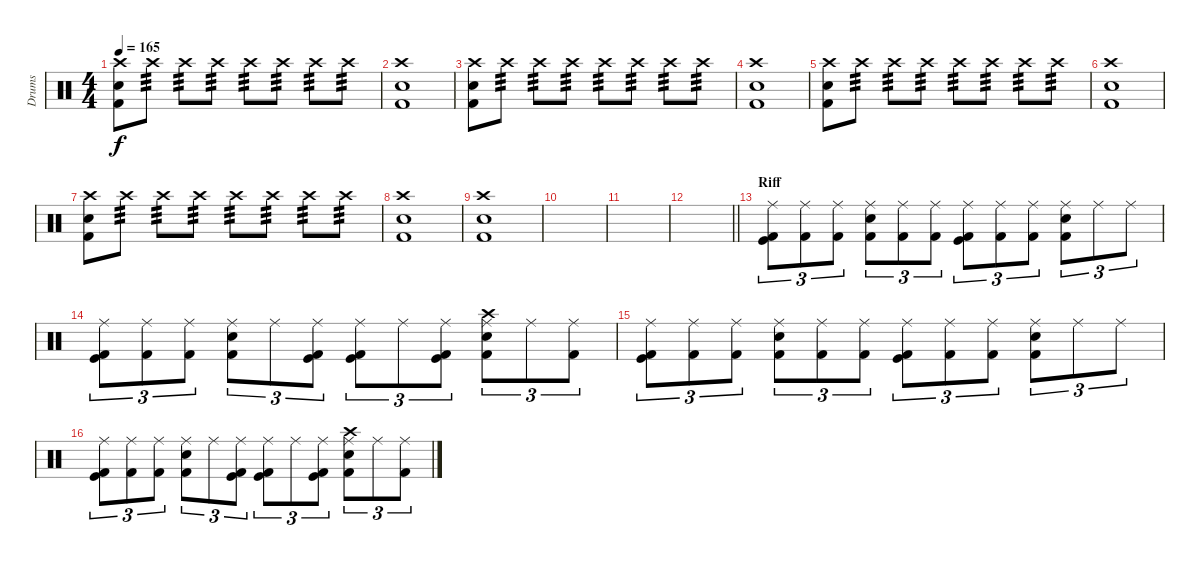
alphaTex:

\track ("Drums" "Drums") {instrument percussion}
\staff {score}
\articulation defaults
\ts (4 4)
\tempo 165
\clef neutral
\ks c
("Kick (hit) 2" "Snare (hit) 2" "Crash high (hit)").8{dy f} "Crash high (hit)".8{tp 3} "Crash high (hit)".8{tp 3} "Crash high (hit)".8{tp 3} "Crash high (hit)".8{tp 3} "Crash high (hit)".8{tp 3} "Crash high (hit)".8{tp 3} "Crash high (hit)".8{tp 3} |
("Kick (hit) 2" "Snare (hit) 2" "Crash high (hit)").1 |
("Kick (hit) 2" "Snare (hit) 2" "Crash high (hit)").8 "Crash high (hit)".8{tp 3} "Crash high (hit)".8{tp 3} "Crash high (hit)".8{tp 3} "Crash high (hit)".8{tp 3} "Crash high (hit)".8{tp 3} "Crash high (hit)".8{tp 3} "Crash high (hit)".8{tp 3} |
("Kick (hit) 2" "Snare (hit) 2" "Crash high (hit)").1 |
("Kick (hit) 2" "Snare (hit) 2" "Crash high (hit)").8 "Crash high (hit)".8{tp 3} "Crash high (hit)".8{tp 3} "Crash high (hit)".8{tp 3} "Crash high (hit)".8{tp 3} "Crash high (hit)".8{tp 3} "Crash high (hit)".8{tp 3} "Crash high (hit)".8{tp 3} |
("Kick (hit) 2" "Snare (hit) 2" "Crash high (hit)").1 |
("Kick (hit) 2" "Snare (hit) 2" "Crash high (hit)").8 "Crash high (hit)".8{tp 3} "Crash high (hit)".8{tp 3} "Crash high (hit)".8{tp 3} "Crash high (hit)".8{tp 3} "Crash high (hit)".8{tp 3} "Crash high (hit)".8{tp 3} "Crash high (hit)".8{tp 3} |
("Kick (hit) 2" "Snare (hit) 2" "Crash high (hit)").1 |
("Kick (hit) 2" "Snare (hit) 2" "Crash high (hit)").1 |
|
|
\barLineRight lightlight
|
\section ("" "Riff")
("Ride (middle)" "Kick (hit)" "Kick (hit) 2").8{tu (3 2)} ("Ride (middle)" "Kick (hit) 2").8{tu (3 2)} ("Ride (middle)" "Kick (hit) 2").8{tu (3 2)} ("Ride (middle)" "Snare (hit) 2" "Kick (hit) 2").8{tu (3 2)} ("Ride (middle)" "Kick (hit) 2").8{tu (3 2)} ("Ride (middle)" "Kick (hit) 2").8{tu (3 2)} ("Ride (middle)" "Kick (hit)" "Kick (hit) 2").8{tu (3 2)} ("Ride (middle)" "Kick (hit) 2").8{tu (3 2)} ("Ride (middle)" "Kick (hit) 2").8{tu (3 2)} ("Ride (middle)" "Snare (hit) 2" "Kick (hit) 2").8{tu (3 2)} "Ride (middle)".8{tu (3 2)} "Ride (middle)".8{tu (3 2)} |
("Ride (middle)" "Kick (hit)" "Kick (hit) 2").8{tu (3 2)} ("Ride (middle)" "Kick (hit) 2").8{tu (3 2)} ("Ride (middle)" "Kick (hit) 2").8{tu (3 2)} ("Ride (middle)" "Snare (hit) 2" "Kick (hit) 2").8{tu (3 2)} "Ride (middle)".8{tu (3 2)} ("Ride (middle)" "Kick (hit)" "Kick (hit) 2").8{tu (3 2)} ("Ride (middle)" "Kick (hit)" "Kick (hit) 2").8{tu (3 2)} "Ride (middle)".8{tu (3 2)} ("Ride (middle)" "Kick (hit)" "Kick (hit) 2").8{tu (3 2)} ("Ride (middle)" "Snare (hit) 2" "Kick (hit) 2" "Crash high (hit)").8{tu (3 2)} "Ride (middle)".8{tu (3 2)} ("Ride (middle)" "Kick (hit) 2").8{tu (3 2)} |
("Ride (middle)" "Kick (hit)" "Kick (hit) 2").8{tu (3 2)} ("Ride (middle)" "Kick (hit) 2").8{tu (3 2)} ("Ride (middle)" "Kick (hit) 2").8{tu (3 2)} ("Ride (middle)" "Snare (hit) 2" "Kick (hit) 2").8{tu (3 2)} ("Ride (middle)" "Kick (hit) 2").8{tu (3 2)} ("Ride (middle)" "Kick (hit) 2").8{tu (3 2)} ("Ride (middle)" "Kick (hit)" "Kick (hit) 2").8{tu (3 2)} ("Ride (middle)" "Kick (hit) 2").8{tu (3 2)} ("Ride (middle)" "Kick (hit) 2").8{tu (3 2)} ("Ride (middle)" "Snare (hit) 2" "Kick (hit) 2").8{tu (3 2)} "Ride (middle)".8{tu (3 2)} "Ride (middle)".8{tu (3 2)} |
("Ride (middle)" "Kick (hit)" "Kick (hit) 2").8{tu (3 2)} ("Ride (middle)" "Kick (hit) 2").8{tu (3 2)} ("Ride (middle)" "Kick (hit) 2").8{tu (3 2)} ("Ride (middle)" "Snare (hit) 2" "Kick (hit) 2").8{tu (3 2)} "Ride (middle)".8{tu (3 2)} ("Ride (middle)" "Kick (hit)" "Kick (hit) 2").8{tu (3 2)} ("Ride (middle)" "Kick (hit)" "Kick (hit) 2").8{tu (3 2)} "Ride (middle)".8{tu (3 2)} ("Ride (middle)" "Kick (hit)" "Kick (hit) 2").8{tu (3 2)} ("Ride (middle)" "Snare (hit) 2" "Kick (hit) 2" "Crash high (hit)").8{tu (3 2)} "Ride (middle)".8{tu (3 2)} ("Ride (middle)" "Kick (hit) 2").8{tu (3 2)}
